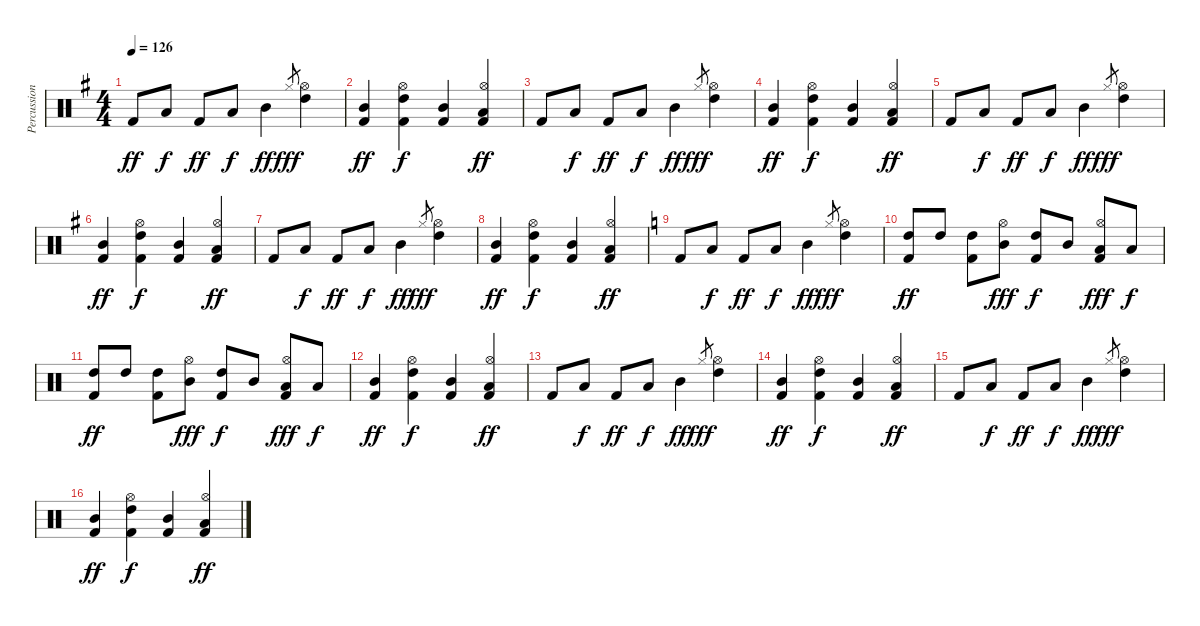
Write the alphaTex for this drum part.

\track ("Percussion" "Percussion") {instrument percussion}
\staff {score}
\articulation defaults
\ts (4 4)
\tempo 126
\clef neutral
\ks g "Kick (hit) 2".8{dy ff} "Low Floor Tom (hit)".8{dy f} "Kick (hit) 2".8{dy ff} "Low Floor Tom (hit)".8{dy f} "Mid Tom (hit)".4{dy ff} "Hi-Hat (closed)".8{gr dy fff}
("High Tom (hit)" "Hi-Hat (open)").4 |
("Kick (hit) 2" "Mid Tom (hit)").4{dy ff} ("Kick (hit) 2" "High Tom (hit)" "Hi-Hat (open)").4{dy f} ("Kick (hit) 2" "Mid Tom (hit)").4 ("Kick (hit) 2" "Low Tom (hit)" "Hi-Hat (open)").4{dy ff} |
"Kick (hit) 2".8 "Low Floor Tom (hit)".8{dy f} "Kick (hit) 2".8{dy ff} "Low Floor Tom (hit)".8{dy f} "Mid Tom (hit)".4{dy ff} "Hi-Hat (closed)".8{gr dy fff} ("High Tom (hit)" "Hi-Hat (open)").4 |
("Kick (hit) 2" "Mid Tom (hit)").4{dy ff} ("Kick (hit) 2" "High Tom (hit)" "Hi-Hat (open)").4{dy f} ("Kick (hit) 2" "Mid Tom (hit)").4 ("Kick (hit) 2" "Low Tom (hit)" "Hi-Hat (open)").4{dy ff} |
"Kick (hit) 2".8 "Low Floor Tom (hit)".8{dy f} "Kick (hit) 2".8{dy ff} "Low Floor Tom (hit)".8{dy f} "Mid Tom (hit)".4{dy ff} "Hi-Hat (closed)".8{gr dy fff} ("High Tom (hit)" "Hi-Hat (open)").4 |
("Kick (hit) 2" "Mid Tom (hit)").4{dy ff} ("Kick (hit) 2" "High Tom (hit)" "Hi-Hat (open)").4{dy f} ("Kick (hit) 2" "Mid Tom (hit)").4 ("Kick (hit) 2" "Low Tom (hit)" "Hi-Hat (open)").4{dy ff} |
"Kick (hit) 2".8 "Low Floor Tom (hit)".8{dy f} "Kick (hit) 2".8{dy ff} "Low Floor Tom (hit)".8{dy f} "Mid Tom (hit)".4{dy ff} "Hi-Hat (closed)".8{gr dy fff} ("High Tom (hit)" "Hi-Hat (open)").4 |
("Kick (hit) 2" "Mid Tom (hit)").4{dy ff} ("Kick (hit) 2" "High Tom (hit)" "Hi-Hat (open)").4{dy f} ("Kick (hit) 2" "Mid Tom (hit)").4 ("Kick (hit) 2" "Low Tom (hit)" "Hi-Hat (open)").4{dy ff} |
\ks c "Kick (hit) 2".8{balance 3} "Low Floor Tom (hit)".8{dy f} "Kick (hit) 2".8{dy ff} "Low Floor Tom (hit)".8{dy f} "Mid Tom (hit)".4{dy ff} "Hi-Hat (closed)".8{gr dy fff}
("High Tom (hit)" "Hi-Hat (open)").4 |
("Kick (hit) 2" "High Tom (hit)").8{dy ff balance 10} "High Tom (hit)".8 ("Kick (hit) 2" "High Tom (hit)").8 ("Mid Tom (hit)" "Hi-Hat (open)").8{dy fff} ("Kick (hit) 2" "High Tom (hit)").8{dy f} "Mid Tom (hit)".8 ("Kick (hit) 2" "Low Tom (hit)" "Hi-Hat (open)").8{dy fff} "Low Tom (hit)".8{dy f} |
("Kick (hit) 2" "High Tom (hit)").8{dy ff} "High Tom (hit)".8 ("Kick (hit) 2" "High Tom (hit)").8 ("Mid Tom (hit)" "Hi-Hat (open)").8{dy fff} ("Kick (hit) 2" "High Tom (hit)").8{dy f} "Mid Tom (hit)".8 ("Kick (hit) 2" "Low Tom (hit)" "Hi-Hat (open)").8{dy fff} "Low Tom (hit)".8{dy f} |
("Kick (hit) 2" "Mid Tom (hit)").4{dy ff} ("Kick (hit) 2" "High Tom (hit)" "Hi-Hat (open)").4{dy f} ("Kick (hit) 2" "Mid Tom (hit)").4 ("Kick (hit) 2" "Low Tom (hit)" "Hi-Hat (open)").4{dy ff} |
"Kick (hit) 2".8 "Low Floor Tom (hit)".8{dy f} "Kick (hit) 2".8{dy ff} "Low Floor Tom (hit)".8{dy f} "Mid Tom (hit)".4{dy ff} "Hi-Hat (closed)".8{gr dy fff} ("High Tom (hit)" "Hi-Hat (open)").4 |
("Kick (hit) 2" "Mid Tom (hit)").4{dy ff} ("Kick (hit) 2" "High Tom (hit)" "Hi-Hat (open)").4{dy f} ("Kick (hit) 2" "Mid Tom (hit)").4 ("Kick (hit) 2" "Low Tom (hit)" "Hi-Hat (open)").4{dy ff} |
"Kick (hit) 2".8 "Low Floor Tom (hit)".8{dy f} "Kick (hit) 2".8{dy ff} "Low Floor Tom (hit)".8{dy f} "Mid Tom (hit)".4{dy ff} "Hi-Hat (closed)".8{gr dy fff} ("High Tom (hit)" "Hi-Hat (open)").4 |
("Kick (hit) 2" "Mid Tom (hit)").4{dy ff} ("Kick (hit) 2" "High Tom (hit)" "Hi-Hat (open)").4{dy f} ("Kick (hit) 2" "Mid Tom (hit)").4 ("Kick (hit) 2" "Low Tom (hit)" "Hi-Hat (open)").4{dy ff}
